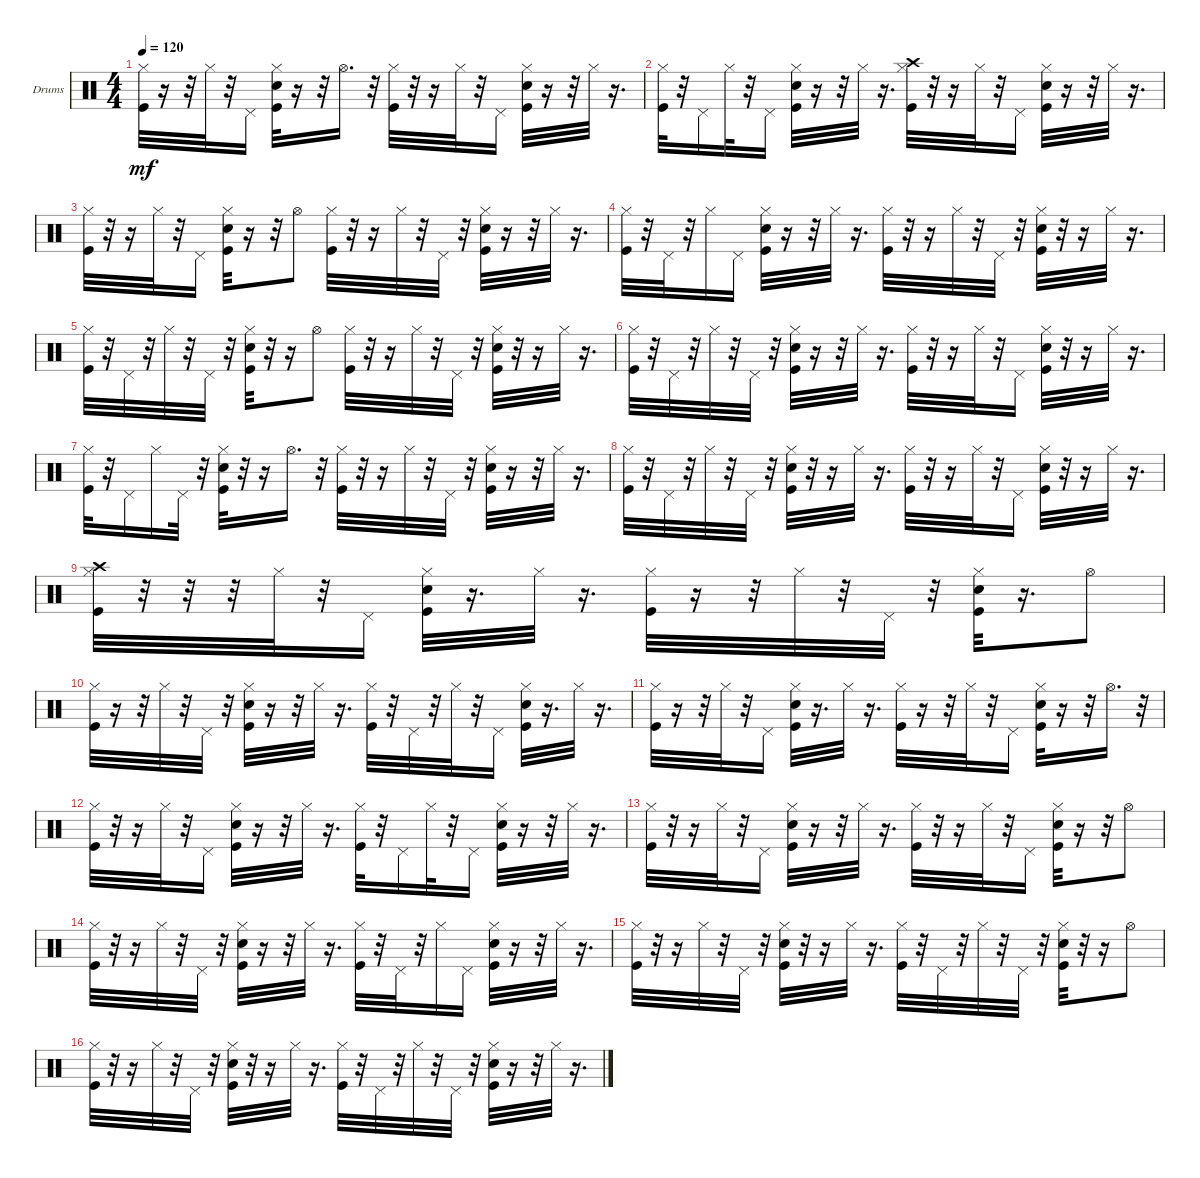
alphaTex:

\bracketExtendMode groupsimilarinstruments
\firstSystemTrackNameOrientation horizontal
\otherSystemsTrackNameOrientation horizontal
\track ("Ударные" "Drums") {instrument percussion}
\staff {score}
\articulation defaults
\ts (4 4)
\tempo 120
\clef neutral
\ks c
("Kick (hit)" "Hi-Hat (closed)").32{dy mf} r.16 r.32 "Hi-Hat (closed)".32 r.32 "Pedal Hi-Hat (hit)".16 ("Snare (hit) 2" "Kick (hit)" "Hi-Hat (closed)").32 r.16 r.32 "Hi-Hat (open)".16{d} r.32 ("Kick (hit)" "Hi-Hat (closed)").32 r.32 r.16 "Hi-Hat (closed)".32 r.32 "Pedal Hi-Hat (hit)".16 ("Kick (hit)" "Snare (hit) 2" "Hi-Hat (closed)").32 r.16 r.32 "Hi-Hat (closed)".32 r.16{d} |
("Kick (hit)" "Hi-Hat (closed)").32 r.32 "Pedal Hi-Hat (hit)".16 "Hi-Hat (closed)".32 r.32 "Pedal Hi-Hat (hit)".16 ("Snare (hit) 2" "Kick (hit)" "Hi-Hat (closed)").32 r.16 r.32 "Hi-Hat (closed)".32 r.16{d} ("Kick (hit)" "Hi-Hat (closed)" "Crash high (hit)").32 r.32 r.16 "Hi-Hat (closed)".32 r.32 "Pedal Hi-Hat (hit)".16 ("Snare (hit) 2" "Kick (hit)" "Hi-Hat (closed)").32 r.16 r.32 "Hi-Hat (closed)".32 r.16{d} |
("Kick (hit)" "Hi-Hat (closed)").32 r.32 r.16 "Hi-Hat (closed)".32 r.32 "Pedal Hi-Hat (hit)".16 ("Snare (hit) 2" "Kick (hit)" "Hi-Hat (closed)").32 r.16 r.32 "Hi-Hat (open)".8 ("Kick (hit)" "Hi-Hat (closed)").32 r.32 r.16 "Hi-Hat (closed)".32 r.32 "Pedal Hi-Hat (hit)".32 r.32 ("Kick (hit)" "Snare (hit) 2" "Hi-Hat (closed)").32 r.16 r.32 "Hi-Hat (closed)".32 r.16{d} |
("Kick (hit)" "Hi-Hat (closed)").32 r.32 "Pedal Hi-Hat (hit)".32 r.32 "Hi-Hat (closed)".16 "Pedal Hi-Hat (hit)".16 ("Snare (hit) 2" "Kick (hit)" "Hi-Hat (closed)").32 r.16 r.32 "Hi-Hat (closed)".32 r.16{d} ("Kick (hit)" "Hi-Hat (closed)").32 r.32 r.16 "Hi-Hat (closed)".32 r.32 "Pedal Hi-Hat (hit)".32 r.32 ("Kick (hit)" "Snare (hit) 2" "Hi-Hat (closed)").32 r.32 r.16 "Hi-Hat (closed)".32 r.16{d} |
("Kick (hit)" "Hi-Hat (closed)").32 r.32 "Pedal Hi-Hat (hit)".32 r.32 "Hi-Hat (closed)".32 r.32 "Pedal Hi-Hat (hit)".32 r.32 ("Snare (hit) 2" "Kick (hit)" "Hi-Hat (closed)").32 r.32 r.16 "Hi-Hat (open)".8 ("Kick (hit)" "Hi-Hat (closed)").32 r.32 r.16 "Hi-Hat (closed)".32 r.32 "Pedal Hi-Hat (hit)".32 r.32 ("Snare (hit) 2" "Kick (hit)" "Hi-Hat (closed)").32 r.32 r.16 "Hi-Hat (closed)".32 r.16{d} |
("Kick (hit)" "Hi-Hat (closed)").32 r.32 "Pedal Hi-Hat (hit)".32 r.32 "Hi-Hat (closed)".32 r.32 "Pedal Hi-Hat (hit)".32 r.32 ("Snare (hit) 2" "Kick (hit)" "Hi-Hat (closed)").32 r.16 r.32 "Hi-Hat (closed)".32 r.16{d} ("Kick (hit)" "Hi-Hat (closed)").32 r.32 r.16 "Hi-Hat (closed)".32 r.32 "Pedal Hi-Hat (hit)".16 ("Snare (hit) 2" "Kick (hit)" "Hi-Hat (closed)").32 r.32 r.16 "Hi-Hat (closed)".32 r.16{d} |
("Kick (hit)" "Hi-Hat (closed)").32 r.32 "Pedal Hi-Hat (hit)".16 "Hi-Hat (closed)".16 "Pedal Hi-Hat (hit)".32 r.32 ("Snare (hit) 2" "Kick (hit)" "Hi-Hat (closed)").32 r.32 r.16 "Hi-Hat (open)".16{d} r.32 ("Kick (hit)" "Hi-Hat (closed)").32 r.32 r.16 "Hi-Hat (closed)".32 r.32 "Pedal Hi-Hat (hit)".32 r.32 ("Kick (hit)" "Snare (hit) 2" "Hi-Hat (closed)").32 r.16 r.32 "Hi-Hat (closed)".32 r.16{d} |
("Kick (hit)" "Hi-Hat (closed)").32 r.32 "Pedal Hi-Hat (hit)".32 r.32 "Hi-Hat (closed)".32 r.32 "Pedal Hi-Hat (hit)".32 r.32 ("Snare (hit) 2" "Kick (hit)" "Hi-Hat (closed)").32 r.32 r.16 "Hi-Hat (closed)".32 r.16{d} ("Kick (hit)" "Hi-Hat (closed)").32 r.32 r.16 "Hi-Hat (closed)".32 r.32 "Pedal Hi-Hat (hit)".16 ("Snare (hit) 2" "Kick (hit)" "Hi-Hat (closed)").32 r.32 r.16 "Hi-Hat (closed)".32 r.16{d} |
("Kick (hit)" "Hi-Hat (closed)" "Crash high (hit)").32 r.32 r.32 r.32 "Hi-Hat (closed)".32 r.32 "Pedal Hi-Hat (hit)".16 ("Kick (hit)" "Snare (hit) 2" "Hi-Hat (closed)").32 r.16{d} "Hi-Hat (closed)".32 r.16{d} ("Kick (hit)" "Hi-Hat (closed)").32 r.16 r.32 "Hi-Hat (closed)".32 r.32 "Pedal Hi-Hat (hit)".32 r.32 ("Kick (hit)" "Snare (hit) 2" "Hi-Hat (closed)").32 r.16{d} "Hi-Hat (open)".8 |
("Kick (hit)" "Hi-Hat (closed)").32 r.16 r.32 "Hi-Hat (closed)".32 r.32 "Pedal Hi-Hat (hit)".32 r.32 ("Snare (hit) 2" "Kick (hit)" "Hi-Hat (closed)").32 r.16 r.32 "Hi-Hat (closed)".32 r.16{d} ("Kick (hit)" "Hi-Hat (closed)").32 r.32 "Pedal Hi-Hat (hit)".32 r.32 "Hi-Hat (closed)".32 r.32 "Pedal Hi-Hat (hit)".16 ("Kick (hit)" "Snare (hit) 2" "Hi-Hat (closed)").32 r.16{d} "Hi-Hat (closed)".32 r.16{d} |
("Kick (hit)" "Hi-Hat (closed)").32 r.16 r.32 "Hi-Hat (closed)".32 r.32 "Pedal Hi-Hat (hit)".16 ("Snare (hit) 2" "Kick (hit)" "Hi-Hat (closed)").32 r.16{d} "Hi-Hat (closed)".32 r.16{d} ("Kick (hit)" "Hi-Hat (closed)").32 r.16 r.32 "Hi-Hat (closed)".32 r.32 "Pedal Hi-Hat (hit)".16 ("Snare (hit) 2" "Kick (hit)" "Hi-Hat (closed)").32 r.16 r.32 "Hi-Hat (open)".16{d} r.32 |
("Kick (hit)" "Hi-Hat (closed)").32 r.32 r.16 "Hi-Hat (closed)".32 r.32 "Pedal Hi-Hat (hit)".16 ("Kick (hit)" "Snare (hit) 2" "Hi-Hat (closed)").32 r.16 r.32 "Hi-Hat (closed)".32 r.16{d} ("Kick (hit)" "Hi-Hat (closed)").32 r.32 "Pedal Hi-Hat (hit)".16 "Hi-Hat (closed)".32 r.32 "Pedal Hi-Hat (hit)".16 ("Snare (hit) 2" "Kick (hit)" "Hi-Hat (closed)").32 r.16 r.32 "Hi-Hat (closed)".32 r.16{d} |
("Kick (hit)" "Hi-Hat (closed)").32 r.32 r.16 "Hi-Hat (closed)".32 r.32 "Pedal Hi-Hat (hit)".16 ("Snare (hit) 2" "Kick (hit)" "Hi-Hat (closed)").32 r.16 r.32 "Hi-Hat (closed)".32 r.16{d} ("Kick (hit)" "Hi-Hat (closed)").32 r.32 r.16 "Hi-Hat (closed)".32 r.32 "Pedal Hi-Hat (hit)".16 ("Snare (hit) 2" "Kick (hit)" "Hi-Hat (closed)").32 r.16 r.32 "Hi-Hat (open)".8 |
("Kick (hit)" "Hi-Hat (closed)").32 r.32 r.16 "Hi-Hat (closed)".32 r.32 "Pedal Hi-Hat (hit)".32 r.32 ("Kick (hit)" "Snare (hit) 2" "Hi-Hat (closed)").32 r.16 r.32 "Hi-Hat (closed)".32 r.16{d} ("Kick (hit)" "Hi-Hat (closed)").32 r.32 "Pedal Hi-Hat (hit)".32 r.32 "Hi-Hat (closed)".16 "Pedal Hi-Hat (hit)".16 ("Snare (hit) 2" "Kick (hit)" "Hi-Hat (closed)").32 r.16 r.32 "Hi-Hat (closed)".32 r.16{d} |
("Kick (hit)" "Hi-Hat (closed)").32 r.32 r.16 "Hi-Hat (closed)".32 r.32 "Pedal Hi-Hat (hit)".32 r.32 ("Kick (hit)" "Snare (hit) 2" "Hi-Hat (closed)").32 r.32 r.16 "Hi-Hat (closed)".32 r.16{d} ("Kick (hit)" "Hi-Hat (closed)").32 r.32 "Pedal Hi-Hat (hit)".32 r.32 "Hi-Hat (closed)".32 r.32 "Pedal Hi-Hat (hit)".32 r.32 ("Snare (hit) 2" "Kick (hit)" "Hi-Hat (closed)").32 r.32 r.16 "Hi-Hat (open)".8 |
("Kick (hit)" "Hi-Hat (closed)").32 r.32 r.16 "Hi-Hat (closed)".32 r.32 "Pedal Hi-Hat (hit)".32 r.32 ("Snare (hit) 2" "Kick (hit)" "Hi-Hat (closed)").32 r.32 r.16 "Hi-Hat (closed)".32 r.16{d} ("Kick (hit)" "Hi-Hat (closed)").32 r.32 "Pedal Hi-Hat (hit)".32 r.32 "Hi-Hat (closed)".32 r.32 "Pedal Hi-Hat (hit)".32 r.32 ("Snare (hit) 2" "Kick (hit)" "Hi-Hat (closed)").32 r.16 r.32 "Hi-Hat (closed)".32 r.16{d}
